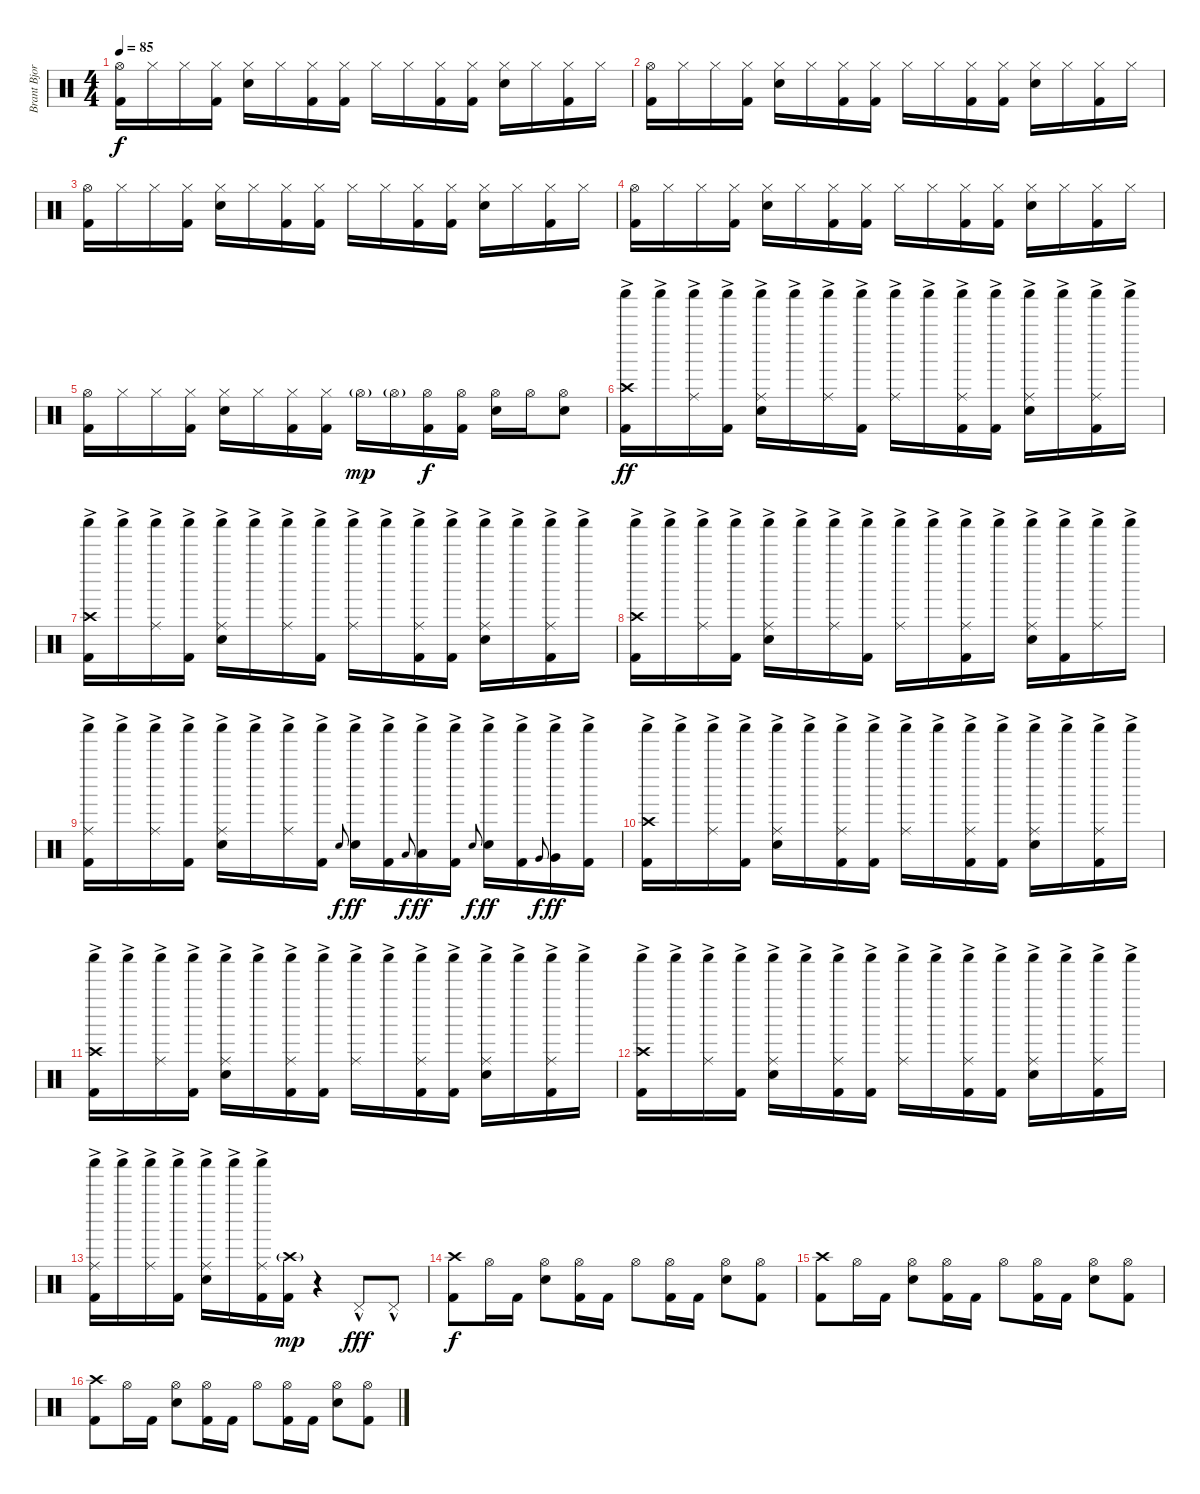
\track ("Brant Bjork" "Brant Bjor") {instrument percussion}
\staff {score}
\articulation defaults
\ts (4 4)
\tempo 85
\clef neutral
\ks c
("Hi-Hat (open)" "Kick (hit) 2").16{dy f} "Hi-Hat (closed)".16 "Hi-Hat (closed)".16 ("Hi-Hat (closed)" "Kick (hit) 2").16 ("Hi-Hat (closed)" "Electric Snare (hit)").16 "Hi-Hat (closed)".16 ("Hi-Hat (closed)" "Kick (hit) 2").16 ("Hi-Hat (closed)" "Kick (hit) 2").16 "Hi-Hat (closed)".16 "Hi-Hat (closed)".16 ("Hi-Hat (closed)" "Kick (hit) 2").16 ("Hi-Hat (closed)" "Kick (hit) 2").16 ("Hi-Hat (closed)" "Electric Snare (hit)").16 "Hi-Hat (closed)".16 ("Hi-Hat (closed)" "Kick (hit) 2").16 "Hi-Hat (closed)".16 |
("Hi-Hat (open)" "Kick (hit) 2").16 "Hi-Hat (closed)".16 "Hi-Hat (closed)".16 ("Hi-Hat (closed)" "Kick (hit) 2").16 ("Hi-Hat (closed)" "Electric Snare (hit)").16 "Hi-Hat (closed)".16 ("Hi-Hat (closed)" "Kick (hit) 2").16 ("Hi-Hat (closed)" "Kick (hit) 2").16 "Hi-Hat (closed)".16 "Hi-Hat (closed)".16 ("Hi-Hat (closed)" "Kick (hit) 2").16 ("Hi-Hat (closed)" "Kick (hit) 2").16 ("Hi-Hat (closed)" "Electric Snare (hit)").16 "Hi-Hat (closed)".16 ("Hi-Hat (closed)" "Kick (hit) 2").16 "Hi-Hat (closed)".16 |
("Hi-Hat (open)" "Kick (hit) 2").16 "Hi-Hat (closed)".16 "Hi-Hat (closed)".16 ("Hi-Hat (closed)" "Kick (hit) 2").16 ("Hi-Hat (closed)" "Electric Snare (hit)").16 "Hi-Hat (closed)".16 ("Hi-Hat (closed)" "Kick (hit) 2").16 ("Hi-Hat (closed)" "Kick (hit) 2").16 "Hi-Hat (closed)".16 "Hi-Hat (closed)".16 ("Hi-Hat (closed)" "Kick (hit) 2").16 ("Hi-Hat (closed)" "Kick (hit) 2").16 ("Hi-Hat (closed)" "Electric Snare (hit)").16 "Hi-Hat (closed)".16 ("Hi-Hat (closed)" "Kick (hit) 2").16 "Hi-Hat (closed)".16 |
("Hi-Hat (open)" "Kick (hit) 2").16 "Hi-Hat (closed)".16 "Hi-Hat (closed)".16 ("Hi-Hat (closed)" "Kick (hit) 2").16 ("Hi-Hat (closed)" "Electric Snare (hit)").16 "Hi-Hat (closed)".16 ("Hi-Hat (closed)" "Kick (hit) 2").16 ("Hi-Hat (closed)" "Kick (hit) 2").16 "Hi-Hat (closed)".16 "Hi-Hat (closed)".16 ("Hi-Hat (closed)" "Kick (hit) 2").16 ("Hi-Hat (closed)" "Kick (hit) 2").16 ("Hi-Hat (closed)" "Electric Snare (hit)").16 "Hi-Hat (closed)".16 ("Hi-Hat (closed)" "Kick (hit) 2").16 "Hi-Hat (closed)".16 |
("Hi-Hat (open)" "Kick (hit) 2").16 "Hi-Hat (closed)".16 "Hi-Hat (closed)".16 ("Hi-Hat (closed)" "Kick (hit) 2").16 ("Hi-Hat (closed)" "Electric Snare (hit)").16 "Hi-Hat (closed)".16 ("Hi-Hat (closed)" "Kick (hit) 2").16 ("Hi-Hat (closed)" "Kick (hit) 2").16 "Hi-Hat (open)"{g}.16{dy mp} "Hi-Hat (open)"{g}.16 ("Hi-Hat (open)" "Kick (hit) 2").16{dy f} ("Hi-Hat (open)" "Kick (hit) 2").16 ("Hi-Hat (open)" "Electric Snare (hit)").16 "Hi-Hat (open)".16 ("Hi-Hat (open)" "Electric Snare (hit)").8 |
("Shaker (hit)"{ac} "Kick (hit) 2" "Crash high (hit)").16{dy ff volume 13} "Shaker (hit)"{ac}.16 ("Shaker (hit)"{ac} "Ride (middle)").16 ("Shaker (hit)"{ac} "Kick (hit) 2").16 ("Shaker (hit)"{ac} "Ride (middle)" "Electric Snare (hit)").16 "Shaker (hit)"{ac}.16 ("Shaker (hit)"{ac} "Ride (middle)").16 ("Shaker (hit)"{ac} "Kick (hit) 2").16 ("Shaker (hit)"{ac} "Ride (middle)").16 "Shaker (hit)"{ac}.16 ("Shaker (hit)"{ac} "Ride (middle)" "Kick (hit) 2").16 ("Shaker (hit)"{ac} "Kick (hit) 2").16 ("Shaker (hit)"{ac} "Ride (middle)" "Electric Snare (hit)").16 "Shaker (hit)"{ac}.16 ("Shaker (hit)"{ac} "Ride (middle)" "Kick (hit) 2").16 "Shaker (hit)"{ac}.16 |
("Shaker (hit)"{ac} "Kick (hit) 2" "Crash high (hit)").16 "Shaker (hit)"{ac}.16 ("Shaker (hit)"{ac} "Ride (middle)").16 ("Shaker (hit)"{ac} "Kick (hit) 2").16 ("Shaker (hit)"{ac} "Ride (middle)" "Electric Snare (hit)").16 "Shaker (hit)"{ac}.16 ("Shaker (hit)"{ac} "Ride (middle)").16 ("Shaker (hit)"{ac} "Kick (hit) 2").16 ("Shaker (hit)"{ac} "Ride (middle)").16 "Shaker (hit)"{ac}.16 ("Shaker (hit)"{ac} "Ride (middle)" "Kick (hit) 2").16 ("Shaker (hit)"{ac} "Kick (hit) 2").16 ("Shaker (hit)"{ac} "Ride (middle)" "Electric Snare (hit)").16 "Shaker (hit)"{ac}.16 ("Shaker (hit)"{ac} "Ride (middle)" "Kick (hit) 2").16 "Shaker (hit)"{ac}.16 |
("Shaker (hit)"{ac} "Kick (hit) 2" "Crash high (hit)").16 "Shaker (hit)"{ac}.16 ("Shaker (hit)"{ac} "Ride (middle)").16 ("Shaker (hit)"{ac} "Kick (hit) 2").16 ("Shaker (hit)"{ac} "Ride (middle)" "Electric Snare (hit)").16 "Shaker (hit)"{ac}.16 ("Shaker (hit)"{ac} "Ride (middle)").16 ("Shaker (hit)"{ac} "Kick (hit) 2").16 ("Shaker (hit)"{ac} "Ride (middle)").16 "Shaker (hit)"{ac}.16 ("Shaker (hit)"{ac} "Ride (middle)" "Kick (hit) 2").16 "Shaker (hit)"{ac}.16 ("Shaker (hit)"{ac} "Ride (middle)" "Electric Snare (hit)").16 ("Shaker (hit)"{ac} "Kick (hit) 2").16 ("Shaker (hit)"{ac} "Ride (middle)").16 "Shaker (hit)"{ac}.16 |
("Shaker (hit)"{ac} "Kick (hit) 2" "Ride (middle)").16 "Shaker (hit)"{ac}.16 ("Shaker (hit)"{ac} "Ride (middle)").16 ("Shaker (hit)"{ac} "Kick (hit) 2").16 ("Shaker (hit)"{ac} "Ride (middle)" "Electric Snare (hit)").16 "Shaker (hit)"{ac}.16 ("Shaker (hit)"{ac} "Ride (middle)").16 ("Shaker (hit)"{ac} "Kick (hit) 2").16 "Electric Snare (hit)".8{gr onbeat dy f} ("Shaker (hit)"{ac} "Electric Snare (hit)").16{dy ff} ("Shaker (hit)"{ac} "Kick (hit) 2").16 "Low Tom (hit)".8{gr onbeat dy f} ("Shaker (hit)"{ac} "Low Tom (hit)").16{dy ff} ("Shaker (hit)"{ac} "Kick (hit) 2").16 "Electric Snare (hit)".8{gr onbeat dy f} ("Shaker (hit)"{ac} "Electric Snare (hit)").16{dy ff} ("Shaker (hit)"{ac} "Kick (hit) 2").16 "Very Low Tom (hit)".8{gr onbeat dy f} ("Shaker (hit)"{ac} "Very Low Tom (hit)").16{dy ff} ("Shaker (hit)"{ac} "Kick (hit) 2").16 |
("Shaker (hit)"{ac} "Kick (hit) 2" "Crash high (hit)").16 "Shaker (hit)"{ac}.16 ("Shaker (hit)"{ac} "Ride (middle)").16 ("Shaker (hit)"{ac} "Kick (hit) 2").16 ("Shaker (hit)"{ac} "Ride (middle)" "Electric Snare (hit)").16 "Shaker (hit)"{ac}.16 ("Shaker (hit)"{ac} "Ride (middle)" "Kick (hit) 2").16 ("Shaker (hit)"{ac} "Kick (hit) 2").16 ("Shaker (hit)"{ac} "Ride (middle)").16 "Shaker (hit)"{ac}.16 ("Shaker (hit)"{ac} "Ride (middle)" "Kick (hit) 2").16 ("Shaker (hit)"{ac} "Kick (hit) 2").16 ("Shaker (hit)"{ac} "Ride (middle)" "Electric Snare (hit)").16 "Shaker (hit)"{ac}.16 ("Shaker (hit)"{ac} "Ride (middle)" "Kick (hit) 2").16 "Shaker (hit)"{ac}.16 |
("Shaker (hit)"{ac} "Kick (hit) 2" "Crash high (hit)").16 "Shaker (hit)"{ac}.16 ("Shaker (hit)"{ac} "Ride (middle)").16 ("Shaker (hit)"{ac} "Kick (hit) 2").16 ("Shaker (hit)"{ac} "Ride (middle)" "Electric Snare (hit)").16 "Shaker (hit)"{ac}.16 ("Shaker (hit)"{ac} "Ride (middle)" "Kick (hit) 2").16 ("Shaker (hit)"{ac} "Kick (hit) 2").16 ("Shaker (hit)"{ac} "Ride (middle)").16 "Shaker (hit)"{ac}.16 ("Shaker (hit)"{ac} "Ride (middle)" "Kick (hit) 2").16 ("Shaker (hit)"{ac} "Kick (hit) 2").16 ("Shaker (hit)"{ac} "Ride (middle)" "Electric Snare (hit)").16 "Shaker (hit)"{ac}.16 ("Shaker (hit)"{ac} "Ride (middle)" "Kick (hit) 2").16 "Shaker (hit)"{ac}.16 |
("Shaker (hit)"{ac} "Kick (hit) 2" "Crash high (hit)").16 "Shaker (hit)"{ac}.16 ("Shaker (hit)"{ac} "Ride (middle)").16 ("Shaker (hit)"{ac} "Kick (hit) 2").16 ("Shaker (hit)"{ac} "Ride (middle)" "Electric Snare (hit)").16 "Shaker (hit)"{ac}.16 ("Shaker (hit)"{ac} "Ride (middle)" "Kick (hit) 2").16 ("Shaker (hit)"{ac} "Kick (hit) 2").16 ("Shaker (hit)"{ac} "Ride (middle)").16 "Shaker (hit)"{ac}.16 ("Shaker (hit)"{ac} "Ride (middle)" "Kick (hit) 2").16 ("Shaker (hit)"{ac} "Kick (hit) 2").16 ("Shaker (hit)"{ac} "Ride (middle)" "Electric Snare (hit)").16 "Shaker (hit)"{ac}.16 ("Shaker (hit)"{ac} "Ride (middle)" "Kick (hit) 2").16 "Shaker (hit)"{ac}.16 |
("Shaker (hit)"{ac} "Ride (middle)" "Kick (hit) 2").16 "Shaker (hit)"{ac}.16 ("Shaker (hit)"{ac} "Ride (middle)").16 ("Shaker (hit)"{ac} "Kick (hit) 2").16 ("Shaker (hit)"{ac} "Ride (middle)" "Electric Snare (hit)").16 "Shaker (hit)"{ac}.16 ("Shaker (hit)"{ac} "Ride (middle)" "Kick (hit) 2").16 ("Crash high (hit)"{g} "Kick (hit) 2").16{dy mp} r.4{volume 0} "Pedal Hi-Hat (hit)"{hac}.8{dy fff volume 3} "Pedal Hi-Hat (hit)"{hac}.8 |
("Kick (hit) 2" "Crash high (hit)").8{dy f volume 13} "Hi-Hat (open)".16 "Kick (hit) 2".16 ("Hi-Hat (open)" "Electric Snare (hit)").8 ("Hi-Hat (open)" "Kick (hit) 2").16 "Kick (hit) 2".16 "Hi-Hat (open)".8 ("Hi-Hat (open)" "Kick (hit) 2").16 "Kick (hit) 2".16 ("Hi-Hat (open)" "Electric Snare (hit)").8 ("Hi-Hat (open)" "Kick (hit) 2").8 |
("Kick (hit) 2" "Crash high (hit)").8 "Hi-Hat (open)".16 "Kick (hit) 2".16 ("Hi-Hat (open)" "Electric Snare (hit)").8 ("Hi-Hat (open)" "Kick (hit) 2").16 "Kick (hit) 2".16 "Hi-Hat (open)".8 ("Hi-Hat (open)" "Kick (hit) 2").16 "Kick (hit) 2".16 ("Hi-Hat (open)" "Electric Snare (hit)").8 ("Hi-Hat (open)" "Kick (hit) 2").8 |
("Kick (hit) 2" "Crash high (hit)").8 "Hi-Hat (open)".16 "Kick (hit) 2".16 ("Hi-Hat (open)" "Electric Snare (hit)").8 ("Hi-Hat (open)" "Kick (hit) 2").16 "Kick (hit) 2".16 "Hi-Hat (open)".8 ("Hi-Hat (open)" "Kick (hit) 2").16 "Kick (hit) 2".16 ("Hi-Hat (open)" "Electric Snare (hit)").8 ("Hi-Hat (open)" "Kick (hit) 2").8
